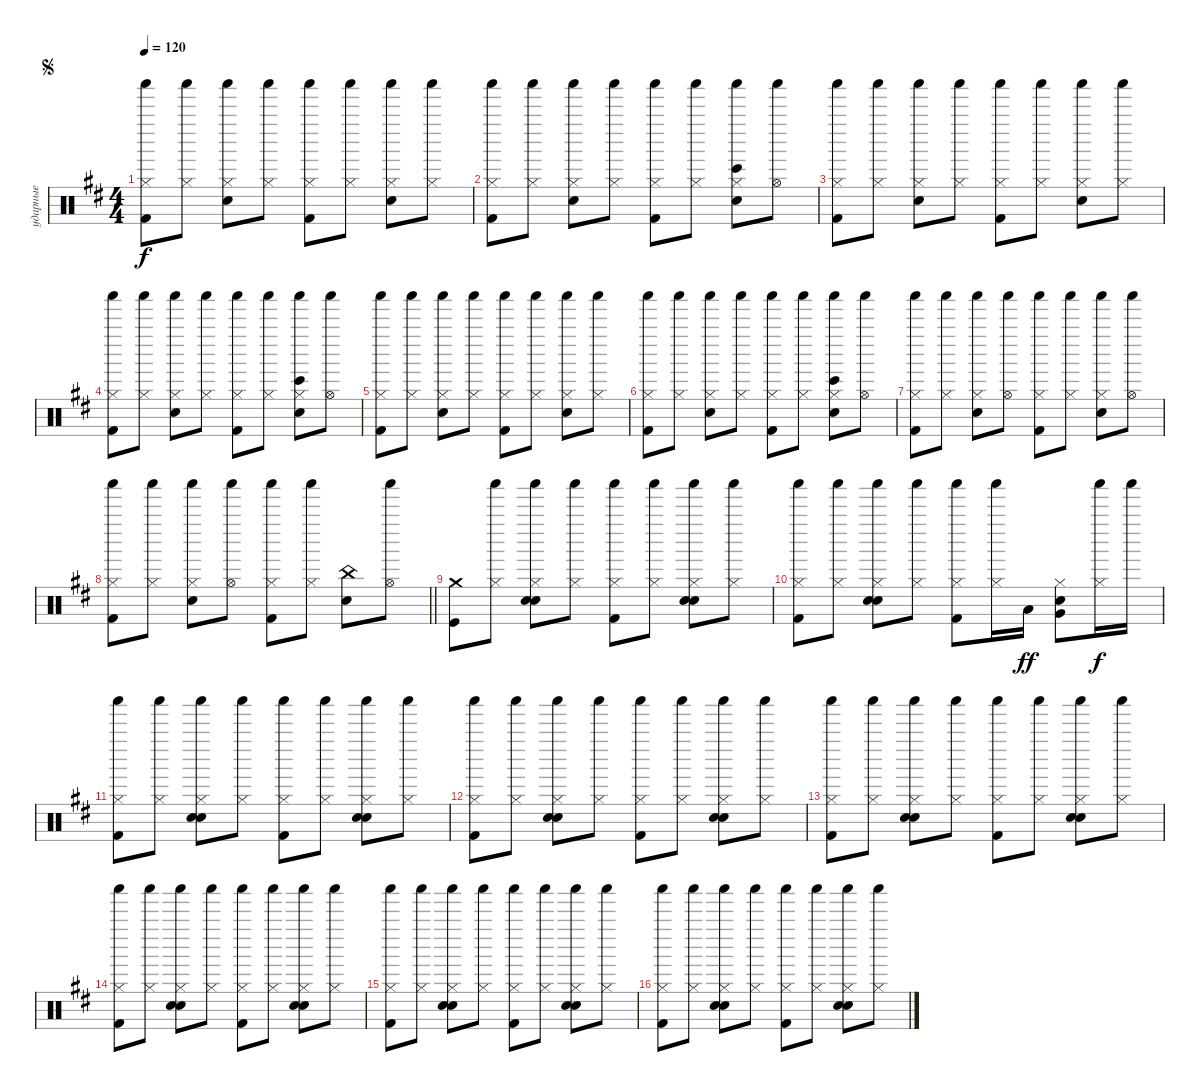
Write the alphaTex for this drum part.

\track ("ударные" "ударные") {instrument percussion}
\staff {score}
\articulation defaults
\ts (4 4)
\jump segno
\tempo 120
\clef neutral
\ks bminor
("Hi-Hat (closed)" "Shaker (hit)" "Kick (hit) 2").8{dy f} ("Hi-Hat (closed)" "Shaker (hit)").8 ("Hi-Hat (closed)" "Shaker (hit)" "Snare (hit) 2").8 ("Hi-Hat (closed)" "Shaker (hit)").8 ("Hi-Hat (closed)" "Shaker (hit)" "Kick (hit) 2").8 ("Hi-Hat (closed)" "Shaker (hit)").8 ("Hi-Hat (closed)" "Shaker (hit)" "Snare (hit) 2").8 ("Hi-Hat (closed)" "Shaker (hit)").8 |
("Hi-Hat (closed)" "Shaker (hit)" "Kick (hit) 2").8 ("Hi-Hat (closed)" "Shaker (hit)").8 ("Hi-Hat (closed)" "Shaker (hit)" "Snare (hit) 2").8 ("Hi-Hat (closed)" "Shaker (hit)").8 ("Hi-Hat (closed)" "Shaker (hit)" "Kick (hit) 2").8 ("Hi-Hat (closed)" "Shaker (hit)").8 ("Snare (hit) 2" "Shaker (hit)" "Bongo High (hit)" "Hi-Hat (closed)").8 ("Shaker (hit)" "Hi-Hat (open)").8 |
("Hi-Hat (closed)" "Shaker (hit)" "Kick (hit) 2").8 ("Hi-Hat (closed)" "Shaker (hit)").8 ("Hi-Hat (closed)" "Shaker (hit)" "Snare (hit) 2").8 ("Hi-Hat (closed)" "Shaker (hit)").8 ("Hi-Hat (closed)" "Shaker (hit)" "Kick (hit) 2").8 ("Hi-Hat (closed)" "Shaker (hit)").8 ("Hi-Hat (closed)" "Shaker (hit)" "Snare (hit) 2").8 ("Hi-Hat (closed)" "Shaker (hit)").8 |
("Hi-Hat (closed)" "Shaker (hit)" "Kick (hit) 2").8 ("Hi-Hat (closed)" "Shaker (hit)").8 ("Hi-Hat (closed)" "Shaker (hit)" "Snare (hit) 2").8 ("Hi-Hat (closed)" "Shaker (hit)").8 ("Hi-Hat (closed)" "Shaker (hit)" "Kick (hit) 2").8 ("Hi-Hat (closed)" "Shaker (hit)").8 ("Snare (hit) 2" "Shaker (hit)" "Bongo High (hit)" "Hi-Hat (closed)").8 ("Shaker (hit)" "Hi-Hat (open)").8 |
("Hi-Hat (closed)" "Shaker (hit)" "Kick (hit) 2").8 ("Hi-Hat (closed)" "Shaker (hit)").8 ("Hi-Hat (closed)" "Shaker (hit)" "Snare (hit) 2").8 ("Hi-Hat (closed)" "Shaker (hit)").8 ("Hi-Hat (closed)" "Shaker (hit)" "Kick (hit) 2").8 ("Hi-Hat (closed)" "Shaker (hit)").8 ("Hi-Hat (closed)" "Shaker (hit)" "Snare (hit) 2").8 ("Hi-Hat (closed)" "Shaker (hit)").8 |
("Hi-Hat (closed)" "Shaker (hit)" "Kick (hit) 2").8 ("Hi-Hat (closed)" "Shaker (hit)").8 ("Hi-Hat (closed)" "Shaker (hit)" "Snare (hit) 2").8 ("Hi-Hat (closed)" "Shaker (hit)").8 ("Hi-Hat (closed)" "Shaker (hit)" "Kick (hit) 2").8 ("Hi-Hat (closed)" "Shaker (hit)").8 ("Snare (hit) 2" "Shaker (hit)" "Bongo High (hit)" "Hi-Hat (closed)").8 ("Shaker (hit)" "Hi-Hat (open)").8 |
("Hi-Hat (closed)" "Shaker (hit)" "Kick (hit) 2").8 ("Hi-Hat (closed)" "Shaker (hit)").8 ("Hi-Hat (closed)" "Shaker (hit)" "Snare (hit) 2").8 ("Shaker (hit)" "Hi-Hat (open)").8 ("Hi-Hat (closed)" "Shaker (hit)" "Kick (hit) 2").8 ("Hi-Hat (closed)" "Shaker (hit)").8 ("Snare (hit) 2" "Shaker (hit)" "Hi-Hat (closed)").8 ("Shaker (hit)" "Hi-Hat (open)").8 |
\barLineRight lightlight
("Hi-Hat (closed)" "Shaker (hit)" "Kick (hit) 2").8 ("Hi-Hat (closed)" "Shaker (hit)").8 ("Hi-Hat (closed)" "Shaker (hit)" "Snare (hit) 2").8 ("Shaker (hit)" "Hi-Hat (open)").8 ("Hi-Hat (closed)" "Shaker (hit)" "Kick (hit) 2").8 ("Hi-Hat (closed)" "Shaker (hit)").8 ("Snare (hit) 2" "China (hit)").8 ("Shaker (hit)" "Hi-Hat (open)").8 |
("Kick (hit)" "Crash medium (hit)").8 ("Hi-Hat (closed)" "Shaker (hit)").8 ("Hi-Hat (closed)" "Shaker (hit)" "Hand Clap (hit)" "Snare (hit) 2").8 ("Hi-Hat (closed)" "Shaker (hit)").8 ("Hi-Hat (closed)" "Shaker (hit)" "Kick (hit) 2").8 ("Hi-Hat (closed)" "Shaker (hit)").8 ("Hi-Hat (closed)" "Shaker (hit)" "Hand Clap (hit)" "Snare (hit) 2").8 ("Hi-Hat (closed)" "Shaker (hit)").8 |
("Hi-Hat (closed)" "Shaker (hit)" "Kick (hit) 2").8 ("Hi-Hat (closed)" "Shaker (hit)").8 ("Hi-Hat (closed)" "Shaker (hit)" "Hand Clap (hit)" "Snare (hit) 2").8 ("Hi-Hat (closed)" "Shaker (hit)").8 ("Hi-Hat (closed)" "Shaker (hit)" "Kick (hit) 2").8 ("Hi-Hat (closed)" "Shaker (hit)").16 "Low Floor Tom (hit)".16{dy ff} ("Hi-Hat (closed)" "Very Low Tom (hit)" "Snare (hit) 2").8 ("Hi-Hat (closed)" "Shaker (hit)").16{dy f} "Shaker (hit)".16 |
("Hi-Hat (closed)" "Shaker (hit)" "Kick (hit) 2").8 ("Hi-Hat (closed)" "Shaker (hit)").8 ("Hi-Hat (closed)" "Shaker (hit)" "Hand Clap (hit)" "Snare (hit) 2").8 ("Hi-Hat (closed)" "Shaker (hit)").8 ("Hi-Hat (closed)" "Shaker (hit)" "Kick (hit) 2").8 ("Hi-Hat (closed)" "Shaker (hit)").8 ("Hi-Hat (closed)" "Shaker (hit)" "Hand Clap (hit)" "Snare (hit) 2").8 ("Hi-Hat (closed)" "Shaker (hit)").8 |
("Hi-Hat (closed)" "Shaker (hit)" "Kick (hit) 2").8 ("Hi-Hat (closed)" "Shaker (hit)").8 ("Hi-Hat (closed)" "Shaker (hit)" "Hand Clap (hit)" "Snare (hit) 2").8 ("Hi-Hat (closed)" "Shaker (hit)").8 ("Hi-Hat (closed)" "Shaker (hit)" "Kick (hit) 2").8 ("Hi-Hat (closed)" "Shaker (hit)").8 ("Hi-Hat (closed)" "Shaker (hit)" "Hand Clap (hit)" "Snare (hit) 2").8 ("Hi-Hat (closed)" "Shaker (hit)").8 |
("Hi-Hat (closed)" "Shaker (hit)" "Kick (hit) 2").8 ("Hi-Hat (closed)" "Shaker (hit)").8 ("Hi-Hat (closed)" "Shaker (hit)" "Hand Clap (hit)" "Snare (hit) 2").8 ("Hi-Hat (closed)" "Shaker (hit)").8 ("Hi-Hat (closed)" "Shaker (hit)" "Kick (hit) 2").8 ("Hi-Hat (closed)" "Shaker (hit)").8 ("Hi-Hat (closed)" "Shaker (hit)" "Hand Clap (hit)" "Snare (hit) 2").8 ("Hi-Hat (closed)" "Shaker (hit)").8 |
("Hi-Hat (closed)" "Shaker (hit)" "Kick (hit) 2").8 ("Hi-Hat (closed)" "Shaker (hit)").8 ("Hi-Hat (closed)" "Shaker (hit)" "Hand Clap (hit)" "Snare (hit) 2").8 ("Hi-Hat (closed)" "Shaker (hit)").8 ("Hi-Hat (closed)" "Shaker (hit)" "Kick (hit) 2").8 ("Hi-Hat (closed)" "Shaker (hit)").8 ("Hi-Hat (closed)" "Shaker (hit)" "Hand Clap (hit)" "Snare (hit) 2").8 ("Hi-Hat (closed)" "Shaker (hit)").8 |
("Hi-Hat (closed)" "Shaker (hit)" "Kick (hit) 2").8 ("Hi-Hat (closed)" "Shaker (hit)").8 ("Hi-Hat (closed)" "Shaker (hit)" "Hand Clap (hit)" "Snare (hit) 2").8 ("Hi-Hat (closed)" "Shaker (hit)").8 ("Hi-Hat (closed)" "Shaker (hit)" "Kick (hit) 2").8 ("Hi-Hat (closed)" "Shaker (hit)").8 ("Hi-Hat (closed)" "Shaker (hit)" "Hand Clap (hit)" "Snare (hit) 2").8 ("Hi-Hat (closed)" "Shaker (hit)").8 |
("Hi-Hat (closed)" "Shaker (hit)" "Kick (hit) 2").8 ("Hi-Hat (closed)" "Shaker (hit)").8 ("Hi-Hat (closed)" "Shaker (hit)" "Hand Clap (hit)" "Snare (hit) 2").8 ("Hi-Hat (closed)" "Shaker (hit)").8 ("Hi-Hat (closed)" "Shaker (hit)" "Kick (hit) 2").8 ("Hi-Hat (closed)" "Shaker (hit)").8 ("Hi-Hat (closed)" "Shaker (hit)" "Hand Clap (hit)" "Snare (hit) 2").8 ("Hi-Hat (closed)" "Shaker (hit)").8
